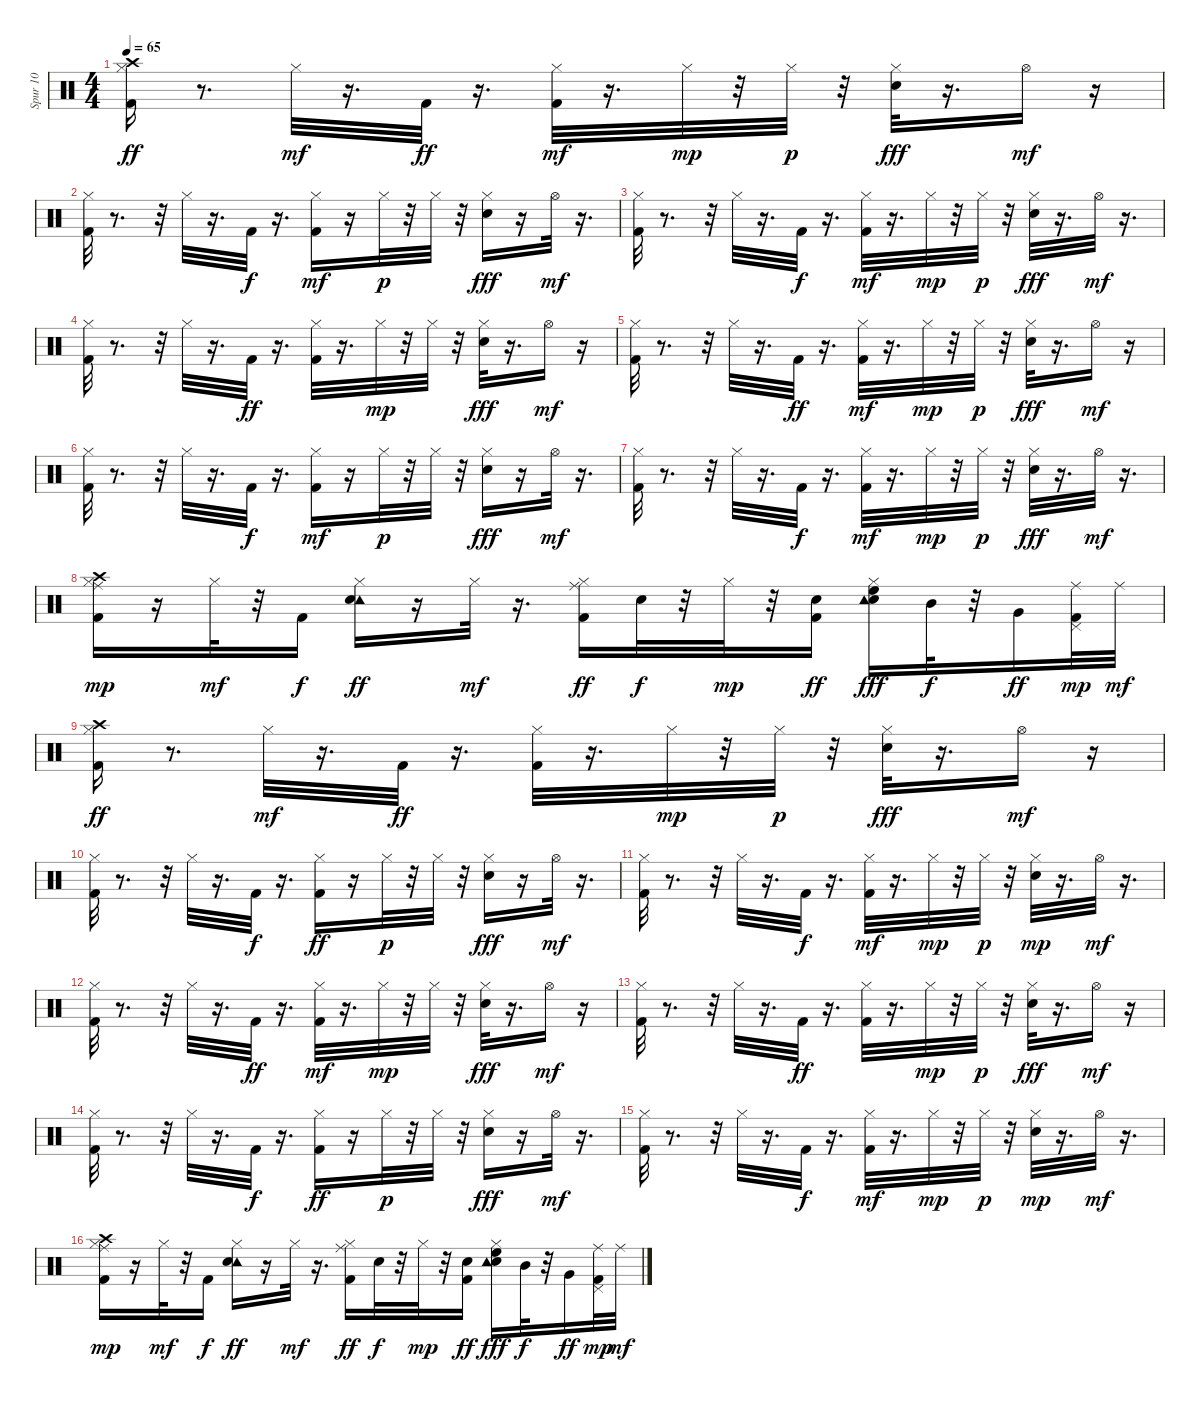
\track ("Spur 10" "Spur 10") {instrument percussion}
\staff {score}
\articulation defaults
\ts (4 4)
\tempo 65
\clef neutral
\ks c
("Kick (hit) 2" "Hi-Hat (closed)" "Crash high (hit)").16{dy ff} r.8{d} "Hi-Hat (closed)".32{dy mf} r.16{d} "Kick (hit) 2".32{dy ff} r.16{d} ("Kick (hit) 2" "Hi-Hat (closed)").32{dy mf} r.16{d} "Hi-Hat (closed)".32{dy mp} r.32 "Hi-Hat (closed)".32{dy p} r.32 ("Hi-Hat (closed)" "Snare (hit) 2").32{dy fff} r.16{d} "Hi-Hat (open)".16{dy mf} r.16 |
("Kick (hit) 2" "Hi-Hat (closed)").32 r.8{d} r.32 "Hi-Hat (closed)".32 r.16{d} "Kick (hit) 2".32{dy f} r.16{d} ("Kick (hit) 2" "Hi-Hat (closed)").16{dy mf} r.16 "Hi-Hat (closed)".32{dy p} r.32 "Hi-Hat (closed)".32 r.32 ("Hi-Hat (closed)" "Snare (hit) 2").16{dy fff} r.16 "Hi-Hat (open)".32{dy mf} r.16{d} |
("Kick (hit) 2" "Hi-Hat (closed)").32 r.8{d} r.32 "Hi-Hat (closed)".32 r.16{d} "Kick (hit) 2".32{dy f} r.16{d} ("Kick (hit) 2" "Hi-Hat (closed)").32{dy mf} r.16{d} "Hi-Hat (closed)".32{dy mp} r.32 "Hi-Hat (closed)".32{dy p} r.32 ("Hi-Hat (closed)" "Snare (hit) 2").32{dy fff} r.16{d} "Hi-Hat (open)".32{dy mf} r.16{d} |
("Kick (hit) 2" "Hi-Hat (closed)").32 r.8{d} r.32 "Hi-Hat (closed)".32 r.16{d} "Kick (hit) 2".32{dy ff} r.16{d} ("Hi-Hat (closed)" "Kick (hit) 2").32 r.16{d} "Hi-Hat (closed)".32{dy mp} r.32 "Hi-Hat (closed)".32 r.32 ("Hi-Hat (closed)" "Snare (hit) 2").32{dy fff} r.16{d} "Hi-Hat (open)".16{dy mf} r.16 |
("Kick (hit) 2" "Hi-Hat (closed)").32 r.8{d} r.32 "Hi-Hat (closed)".32 r.16{d} "Kick (hit) 2".32{dy ff} r.16{d} ("Kick (hit) 2" "Hi-Hat (closed)").32{dy mf} r.16{d} "Hi-Hat (closed)".32{dy mp} r.32 "Hi-Hat (closed)".32{dy p} r.32 ("Hi-Hat (closed)" "Snare (hit) 2").32{dy fff} r.16{d} "Hi-Hat (open)".16{dy mf} r.16 |
("Kick (hit) 2" "Hi-Hat (closed)").32 r.8{d} r.32 "Hi-Hat (closed)".32 r.16{d} "Kick (hit) 2".32{dy f} r.16{d} ("Kick (hit) 2" "Hi-Hat (closed)").16{dy mf} r.16 "Hi-Hat (closed)".32{dy p} r.32 "Hi-Hat (closed)".32 r.32 ("Hi-Hat (closed)" "Snare (hit) 2").16{dy fff} r.16 "Hi-Hat (open)".32{dy mf} r.16{d} |
("Kick (hit) 2" "Hi-Hat (closed)").32 r.8{d} r.32 "Hi-Hat (closed)".32 r.16{d} "Kick (hit) 2".32{dy f} r.16{d} ("Kick (hit) 2" "Hi-Hat (closed)").32{dy mf} r.16{d} "Hi-Hat (closed)".32{dy mp} r.32 "Hi-Hat (closed)".32{dy p} r.32 ("Hi-Hat (closed)" "Snare (hit) 2").32{dy fff} r.16{d} "Hi-Hat (open)".32{dy mf} r.16{d} |
("Crash high (hit)" "Ride (middle)" "Kick (hit) 2" "Hi-Hat (closed)").16{dy mp} r.16 "Hi-Hat (closed)".32{dy mf} r.32 "Kick (hit) 2".16{dy f} ("Hi-Hat (closed)" "Tambourine (hit)" "Electric Snare (hit)").16{dy ff} r.16 "Hi-Hat (closed)".32{dy mf} r.16{d} ("Ride (middle)" "Hi-Hat (closed)" "Kick (hit) 2").16{dy ff} "Electric Snare (hit)".32{dy f} r.32 "Hi-Hat (closed)".32{dy mp} r.32 ("Kick (hit) 2" "Electric Snare (hit)").16{dy ff} ("High Floor Tom (hit)" "Electric Snare (hit)" "Hi-Hat (closed)" "Tambourine (hit)").16{dy fff} "Mid Tom (hit)".32{dy f} r.32 "Very Low Tom (hit)".16{dy ff} ("Pedal Hi-Hat (hit)" "Ride (middle)" "Kick (hit) 2").32{dy mp} "Ride (middle)".32{dy mf} |
("Hi-Hat (closed)" "Kick (hit) 2" "Crash high (hit)").16{dy ff} r.8{d} "Hi-Hat (closed)".32{dy mf} r.16{d} "Kick (hit) 2".32{dy ff} r.16{d} ("Hi-Hat (closed)" "Kick (hit) 2").32 r.16{d} "Hi-Hat (closed)".32{dy mp} r.32 "Hi-Hat (closed)".32{dy p} r.32 ("Hi-Hat (closed)" "Snare (hit) 2").32{dy fff} r.16{d} "Hi-Hat (open)".16{dy mf} r.16 |
("Kick (hit) 2" "Hi-Hat (closed)").32 r.8{d} r.32 "Hi-Hat (closed)".32 r.16{d} "Kick (hit) 2".32{dy f} r.16{d} ("Hi-Hat (closed)" "Kick (hit) 2").16{dy ff} r.16 "Hi-Hat (closed)".32{dy p} r.32 "Hi-Hat (closed)".32 r.32 ("Hi-Hat (closed)" "Snare (hit) 2").16{dy fff} r.16 "Hi-Hat (open)".32{dy mf} r.16{d} |
("Kick (hit) 2" "Hi-Hat (closed)").32 r.8{d} r.32 "Hi-Hat (closed)".32 r.16{d} "Kick (hit) 2".32{dy f} r.16{d} ("Hi-Hat (closed)" "Kick (hit) 2").32{dy mf} r.16{d} "Hi-Hat (closed)".32{dy mp} r.32 "Hi-Hat (closed)".32{dy p} r.32 ("Snare (hit) 2" "Hi-Hat (closed)").32{dy mp} r.16{d} "Hi-Hat (open)".32{dy mf} r.16{d} |
("Kick (hit) 2" "Hi-Hat (closed)").32 r.8{d} r.32 "Hi-Hat (closed)".32 r.16{d} "Kick (hit) 2".32{dy ff} r.16{d} ("Kick (hit) 2" "Hi-Hat (closed)").32{dy mf} r.16{d} "Hi-Hat (closed)".32{dy mp} r.32 "Hi-Hat (closed)".32 r.32 ("Hi-Hat (closed)" "Snare (hit) 2").32{dy fff} r.16{d} "Hi-Hat (open)".16{dy mf} r.16 |
("Kick (hit) 2" "Hi-Hat (closed)").32 r.8{d} r.32 "Hi-Hat (closed)".32 r.16{d} "Kick (hit) 2".32{dy ff} r.16{d} ("Hi-Hat (closed)" "Kick (hit) 2").32 r.16{d} "Hi-Hat (closed)".32{dy mp} r.32 "Hi-Hat (closed)".32{dy p} r.32 ("Hi-Hat (closed)" "Snare (hit) 2").32{dy fff} r.16{d} "Hi-Hat (open)".16{dy mf} r.16 |
("Kick (hit) 2" "Hi-Hat (closed)").32 r.8{d} r.32 "Hi-Hat (closed)".32 r.16{d} "Kick (hit) 2".32{dy f} r.16{d} ("Hi-Hat (closed)" "Kick (hit) 2").16{dy ff} r.16 "Hi-Hat (closed)".32{dy p} r.32 "Hi-Hat (closed)".32 r.32 ("Hi-Hat (closed)" "Snare (hit) 2").16{dy fff} r.16 "Hi-Hat (open)".32{dy mf} r.16{d} |
("Kick (hit) 2" "Hi-Hat (closed)").32 r.8{d} r.32 "Hi-Hat (closed)".32 r.16{d} "Kick (hit) 2".32{dy f} r.16{d} ("Kick (hit) 2" "Hi-Hat (closed)").32{dy mf} r.16{d} "Hi-Hat (closed)".32{dy mp} r.32 "Hi-Hat (closed)".32{dy p} r.32 ("Snare (hit) 2" "Hi-Hat (closed)").32{dy mp} r.16{d} "Hi-Hat (open)".32{dy mf} r.16{d} |
("Crash high (hit)" "Ride (middle)" "Hi-Hat (closed)" "Kick (hit) 2").16{dy mp} r.16 "Hi-Hat (closed)".32{dy mf} r.32 "Kick (hit) 2".16{dy f} ("Hi-Hat (closed)" "Tambourine (hit)" "Electric Snare (hit)").16{dy ff} r.16 "Hi-Hat (closed)".32{dy mf} r.16{d} ("Ride (middle)" "Hi-Hat (closed)" "Kick (hit) 2").16{dy ff} "Electric Snare (hit)".32{dy f} r.32 "Hi-Hat (closed)".32{dy mp} r.32 ("Kick (hit) 2" "Electric Snare (hit)").16{dy ff} ("High Floor Tom (hit)" "Hi-Hat (closed)" "Electric Snare (hit)" "Tambourine (hit)").16{dy fff} "Mid Tom (hit)".32{dy f} r.32 "Very Low Tom (hit)".16{dy ff} ("Pedal Hi-Hat (hit)" "Kick (hit) 2" "Ride (middle)").32{dy mp} "Ride (middle)".32{dy mf}
